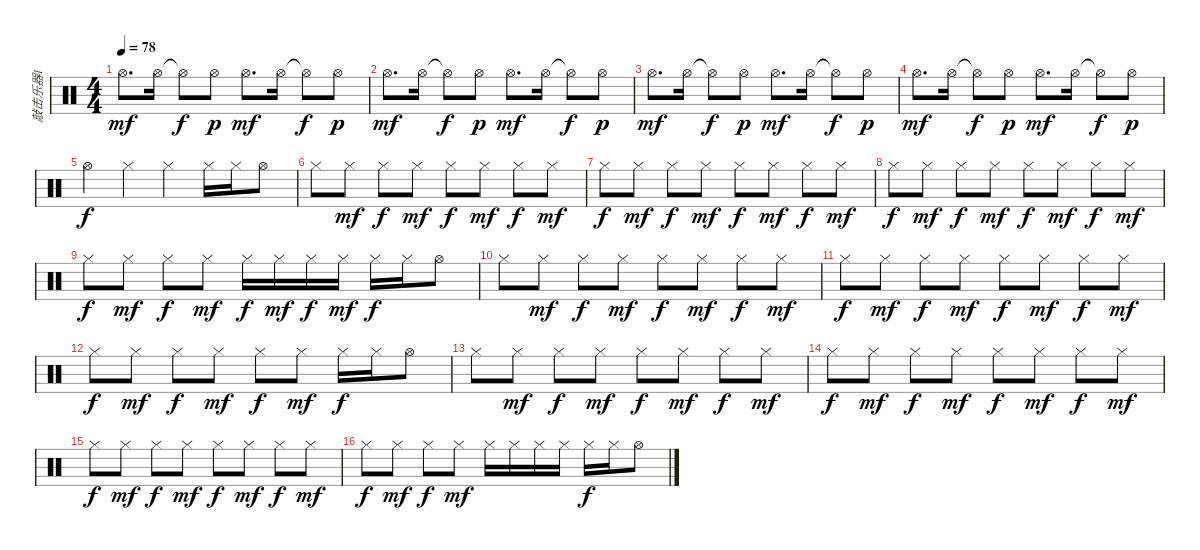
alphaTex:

\track ("敲击乐器1" "敲击乐器1") {instrument percussion}
\staff {score}
\articulation defaults
\ts (4 4)
\tempo 78
\clef neutral
\ks c "Hi-Hat (open)".8{d dy mf} "Hi-Hat (open)".16 "Hi-Hat (open)"{t}.8{dy f} "Hi-Hat (open)".8{dy p} "Hi-Hat (open)".8{d dy mf} "Hi-Hat (open)".16 "Hi-Hat (open)"{t}.8{dy f} "Hi-Hat (open)".8{dy p}
|
"Hi-Hat (open)".8{d dy mf} "Hi-Hat (open)".16 "Hi-Hat (open)"{t}.8{dy f} "Hi-Hat (open)".8{dy p} "Hi-Hat (open)".8{d dy mf} "Hi-Hat (open)".16 "Hi-Hat (open)"{t}.8{dy f} "Hi-Hat (open)".8{dy p} |
"Hi-Hat (open)".8{d dy mf} "Hi-Hat (open)".16 "Hi-Hat (open)"{t}.8{dy f} "Hi-Hat (open)".8{dy p} "Hi-Hat (open)".8{d dy mf} "Hi-Hat (open)".16 "Hi-Hat (open)"{t}.8{dy f} "Hi-Hat (open)".8{dy p} |
"Hi-Hat (open)".8{d dy mf} "Hi-Hat (open)".16 "Hi-Hat (open)"{t}.8{dy f} "Hi-Hat (open)".8{dy p} "Hi-Hat (open)".8{d dy mf} "Hi-Hat (open)".16 "Hi-Hat (open)"{t}.8{dy f} "Hi-Hat (open)".8{dy p} |
"Hi-Hat (open)".4{dy f} "Hi-Hat (closed)".4 "Hi-Hat (closed)".4 "Hi-Hat (closed)".16 "Hi-Hat (closed)".16 "Hi-Hat (open)".8 |
"Hi-Hat (closed)".8 "Hi-Hat (closed)".8{dy mf} "Hi-Hat (closed)".8{dy f} "Hi-Hat (closed)".8{dy mf} "Hi-Hat (closed)".8{dy f} "Hi-Hat (closed)".8{dy mf} "Hi-Hat (closed)".8{dy f} "Hi-Hat (closed)".8{dy mf} |
"Hi-Hat (closed)".8{dy f} "Hi-Hat (closed)".8{dy mf} "Hi-Hat (closed)".8{dy f} "Hi-Hat (closed)".8{dy mf} "Hi-Hat (closed)".8{dy f} "Hi-Hat (closed)".8{dy mf} "Hi-Hat (closed)".8{dy f} "Hi-Hat (closed)".8{dy mf} |
"Hi-Hat (closed)".8{dy f} "Hi-Hat (closed)".8{dy mf} "Hi-Hat (closed)".8{dy f} "Hi-Hat (closed)".8{dy mf} "Hi-Hat (closed)".8{dy f} "Hi-Hat (closed)".8{dy mf} "Hi-Hat (closed)".8{dy f} "Hi-Hat (closed)".8{dy mf} |
"Hi-Hat (closed)".8{dy f} "Hi-Hat (closed)".8{dy mf} "Hi-Hat (closed)".8{dy f} "Hi-Hat (closed)".8{dy mf} "Hi-Hat (closed)".16{dy f} "Hi-Hat (closed)".16{dy mf} "Hi-Hat (closed)".16{dy f} "Hi-Hat (closed)".16{dy mf} "Hi-Hat (closed)".16{dy f} "Hi-Hat (closed)".16 "Hi-Hat (open)".8 |
"Hi-Hat (closed)".8 "Hi-Hat (closed)".8{dy mf} "Hi-Hat (closed)".8{dy f} "Hi-Hat (closed)".8{dy mf} "Hi-Hat (closed)".8{dy f} "Hi-Hat (closed)".8{dy mf} "Hi-Hat (closed)".8{dy f} "Hi-Hat (closed)".8{dy mf} |
"Hi-Hat (closed)".8{dy f} "Hi-Hat (closed)".8{dy mf} "Hi-Hat (closed)".8{dy f} "Hi-Hat (closed)".8{dy mf} "Hi-Hat (closed)".8{dy f} "Hi-Hat (closed)".8{dy mf} "Hi-Hat (closed)".8{dy f} "Hi-Hat (closed)".8{dy mf} |
"Hi-Hat (closed)".8{dy f} "Hi-Hat (closed)".8{dy mf} "Hi-Hat (closed)".8{dy f} "Hi-Hat (closed)".8{dy mf} "Hi-Hat (closed)".8{dy f} "Hi-Hat (closed)".8{dy mf} "Hi-Hat (closed)".16{dy f} "Hi-Hat (closed)".16 "Hi-Hat (open)".8 |
"Hi-Hat (closed)".8 "Hi-Hat (closed)".8{dy mf} "Hi-Hat (closed)".8{dy f} "Hi-Hat (closed)".8{dy mf} "Hi-Hat (closed)".8{dy f} "Hi-Hat (closed)".8{dy mf} "Hi-Hat (closed)".8{dy f} "Hi-Hat (closed)".8{dy mf} |
"Hi-Hat (closed)".8{dy f} "Hi-Hat (closed)".8{dy mf} "Hi-Hat (closed)".8{dy f} "Hi-Hat (closed)".8{dy mf} "Hi-Hat (closed)".8{dy f} "Hi-Hat (closed)".8{dy mf} "Hi-Hat (closed)".8{dy f} "Hi-Hat (closed)".8{dy mf} |
"Hi-Hat (closed)".8{dy f} "Hi-Hat (closed)".8{dy mf} "Hi-Hat (closed)".8{dy f} "Hi-Hat (closed)".8{dy mf} "Hi-Hat (closed)".8{dy f} "Hi-Hat (closed)".8{dy mf} "Hi-Hat (closed)".8{dy f} "Hi-Hat (closed)".8{dy mf} |
"Hi-Hat (closed)".8{dy f} "Hi-Hat (closed)".8{dy mf} "Hi-Hat (closed)".8{dy f} "Hi-Hat (closed)".8{dy mf} "Hi-Hat (closed)".16 "Hi-Hat (closed)".16 "Hi-Hat (closed)".16 "Hi-Hat (closed)".16 "Hi-Hat (closed)".16{dy f} "Hi-Hat (closed)".16 "Hi-Hat (open)".8
